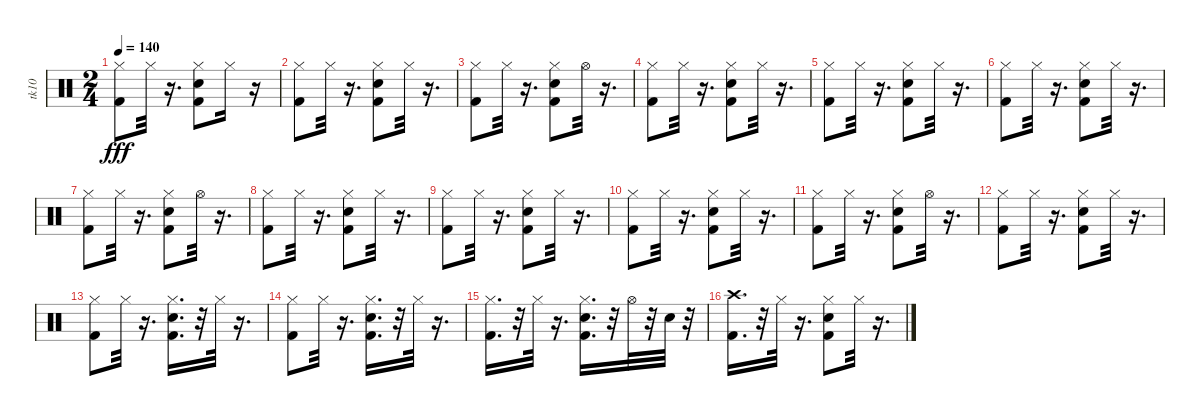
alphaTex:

\track ("tk10" "tk10") {instrument percussion}
\staff {score}
\articulation defaults
\ts (2 4)
\tempo 140
\clef neutral
\ks c
("Kick (hit) 2" "Hi-Hat (closed)").8{dy fff} "Hi-Hat (closed)".32 r.16{d} ("Snare (hit) 2" "Kick (hit) 2" "Hi-Hat (closed)").8 "Hi-Hat (closed)".16 r.16 |
("Kick (hit) 2" "Hi-Hat (closed)").8 "Hi-Hat (closed)".32 r.16{d} ("Snare (hit) 2" "Kick (hit) 2" "Hi-Hat (closed)").8 "Hi-Hat (closed)".32 r.16{d} |
("Kick (hit) 2" "Hi-Hat (closed)").8 "Hi-Hat (closed)".32 r.16{d} ("Kick (hit) 2" "Snare (hit) 2" "Hi-Hat (closed)").8 "Hi-Hat (open)".32 r.16{d} |
("Kick (hit) 2" "Hi-Hat (closed)").8 "Hi-Hat (closed)".32 r.16{d} ("Kick (hit) 2" "Hi-Hat (closed)" "Snare (hit) 2").8 "Hi-Hat (closed)".32 r.16{d} |
("Kick (hit) 2" "Hi-Hat (closed)").8 "Hi-Hat (closed)".32 r.16{d} ("Snare (hit) 2" "Kick (hit) 2" "Hi-Hat (closed)").8 "Hi-Hat (closed)".32 r.16{d} |
("Kick (hit) 2" "Hi-Hat (closed)").8 "Hi-Hat (closed)".32 r.16{d} ("Snare (hit) 2" "Kick (hit) 2" "Hi-Hat (closed)").8 "Hi-Hat (closed)".32 r.16{d} |
("Kick (hit) 2" "Hi-Hat (closed)").8 "Hi-Hat (closed)".32 r.16{d} ("Kick (hit) 2" "Hi-Hat (closed)" "Snare (hit) 2").8 "Hi-Hat (open)".32 r.16{d} |
("Kick (hit) 2" "Hi-Hat (closed)").8 "Hi-Hat (closed)".32 r.16{d} ("Snare (hit) 2" "Kick (hit) 2" "Hi-Hat (closed)").8 "Hi-Hat (closed)".32 r.16{d} |
("Kick (hit) 2" "Hi-Hat (closed)").8 "Hi-Hat (closed)".32 r.16{d} ("Snare (hit) 2" "Kick (hit) 2" "Hi-Hat (closed)").8 "Hi-Hat (closed)".32 r.16{d} |
("Kick (hit) 2" "Hi-Hat (closed)").8 "Hi-Hat (closed)".32 r.16{d} ("Kick (hit) 2" "Hi-Hat (closed)" "Snare (hit) 2").8 "Hi-Hat (closed)".32 r.16{d} |
("Kick (hit) 2" "Hi-Hat (closed)").8 "Hi-Hat (closed)".32 r.16{d} ("Snare (hit) 2" "Kick (hit) 2" "Hi-Hat (closed)").8 "Hi-Hat (open)".32 r.16{d} |
("Kick (hit) 2" "Hi-Hat (closed)").8 "Hi-Hat (closed)".32 r.16{d} ("Snare (hit) 2" "Kick (hit) 2" "Hi-Hat (closed)").8 "Hi-Hat (closed)".32 r.16{d} |
("Kick (hit) 2" "Hi-Hat (closed)").8 "Hi-Hat (closed)".32 r.16{d} ("Snare (hit) 2" "Kick (hit) 2" "Hi-Hat (closed)").16{d} r.32 "Hi-Hat (closed)".32 r.16{d} |
("Kick (hit) 2" "Hi-Hat (closed)").8 "Hi-Hat (closed)".32 r.16{d} ("Hi-Hat (closed)" "Snare (hit) 2" "Kick (hit) 2").16{d} r.32 "Hi-Hat (closed)".32 r.16{d} |
("Kick (hit) 2" "Hi-Hat (closed)").16{d} r.32 "Hi-Hat (closed)".32 r.16{d} ("Snare (hit) 2" "Kick (hit) 2" "Hi-Hat (closed)").16{d} r.32 "Hi-Hat (open)".32 r.32 "Snare (hit) 2".32 r.32 |
("Crash high (hit)" "Kick (hit) 2").16{d} r.32 "Hi-Hat (closed)".32 r.16{d} ("Kick (hit) 2" "Snare (hit) 2" "Hi-Hat (closed)").8 "Hi-Hat (closed)".32 r.16{d}
